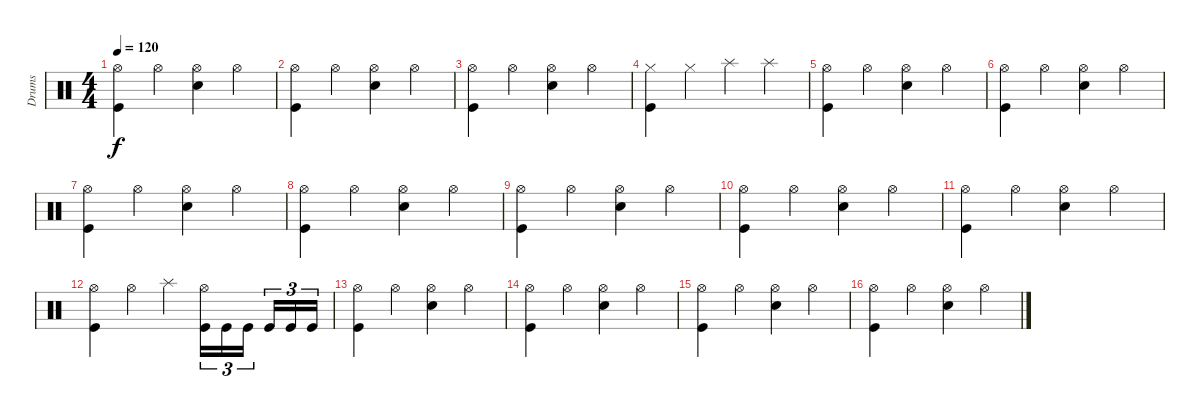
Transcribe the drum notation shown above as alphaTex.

\track ("Drums" "Drums") {instrument percussion}
\staff {score}
\articulation defaults
\ts (4 4)
\tempo 120
\clef neutral
\ks c
("Hi-Hat (open)" "Kick (hit)").4{dy f} "Hi-Hat (open)".4 ("Hi-Hat (open)" "Snare (hit) 2").4 "Hi-Hat (open)".4 |
("Hi-Hat (open)" "Kick (hit)").4 "Hi-Hat (open)".4 ("Hi-Hat (open)" "Snare (hit) 2").4 "Hi-Hat (open)".4 |
("Hi-Hat (open)" "Kick (hit)").4 "Hi-Hat (open)".4 ("Hi-Hat (open)" "Snare (hit) 2").4 "Hi-Hat (open)".4 |
("Hi-Hat (closed)" "Kick (hit)").4 "Hi-Hat (closed)".4 "Splash (hit)".4 "Splash (hit)".4 |
("Hi-Hat (open)" "Kick (hit)").4 "Hi-Hat (open)".4 ("Hi-Hat (open)" "Snare (hit) 2").4 "Hi-Hat (open)".4 |
("Hi-Hat (open)" "Kick (hit)").4 "Hi-Hat (open)".4 ("Hi-Hat (open)" "Snare (hit) 2").4 "Hi-Hat (open)".4 |
("Hi-Hat (open)" "Kick (hit)").4 "Hi-Hat (open)".4 ("Hi-Hat (open)" "Snare (hit) 2").4 "Hi-Hat (open)".4 |
("Hi-Hat (open)" "Kick (hit)").4 "Hi-Hat (open)".4 ("Hi-Hat (open)" "Snare (hit) 2").4 "Hi-Hat (open)".4 |
("Hi-Hat (open)" "Kick (hit)").4 "Hi-Hat (open)".4 ("Hi-Hat (open)" "Snare (hit) 2").4 "Hi-Hat (open)".4 |
("Hi-Hat (open)" "Kick (hit)").4 "Hi-Hat (open)".4 ("Hi-Hat (open)" "Snare (hit) 2").4 "Hi-Hat (open)".4 |
("Hi-Hat (open)" "Kick (hit)").4 "Hi-Hat (open)".4 ("Hi-Hat (open)" "Snare (hit) 2").4 "Hi-Hat (open)".4 |
("Hi-Hat (open)" "Kick (hit)").4 "Hi-Hat (open)".4 "Splash (hit)".4 ("Hi-Hat (open)" "Kick (hit)").16{tu (3 2)} "Kick (hit)".16{tu (3 2)} "Kick (hit)".16{tu (3 2)} "Kick (hit)".16{tu (3 2)} "Kick (hit)".16{tu (3 2)} "Kick (hit)".16{tu (3 2)} |
("Hi-Hat (open)" "Kick (hit)").4 "Hi-Hat (open)".4 ("Hi-Hat (open)" "Snare (hit) 2").4 "Hi-Hat (open)".4 |
("Hi-Hat (open)" "Kick (hit)").4 "Hi-Hat (open)".4 ("Hi-Hat (open)" "Snare (hit) 2").4 "Hi-Hat (open)".4 |
("Hi-Hat (open)" "Kick (hit)").4 "Hi-Hat (open)".4 ("Hi-Hat (open)" "Snare (hit) 2").4 "Hi-Hat (open)".4 |
("Hi-Hat (open)" "Kick (hit)").4 "Hi-Hat (open)".4 ("Hi-Hat (open)" "Snare (hit) 2").4 "Hi-Hat (open)".4
